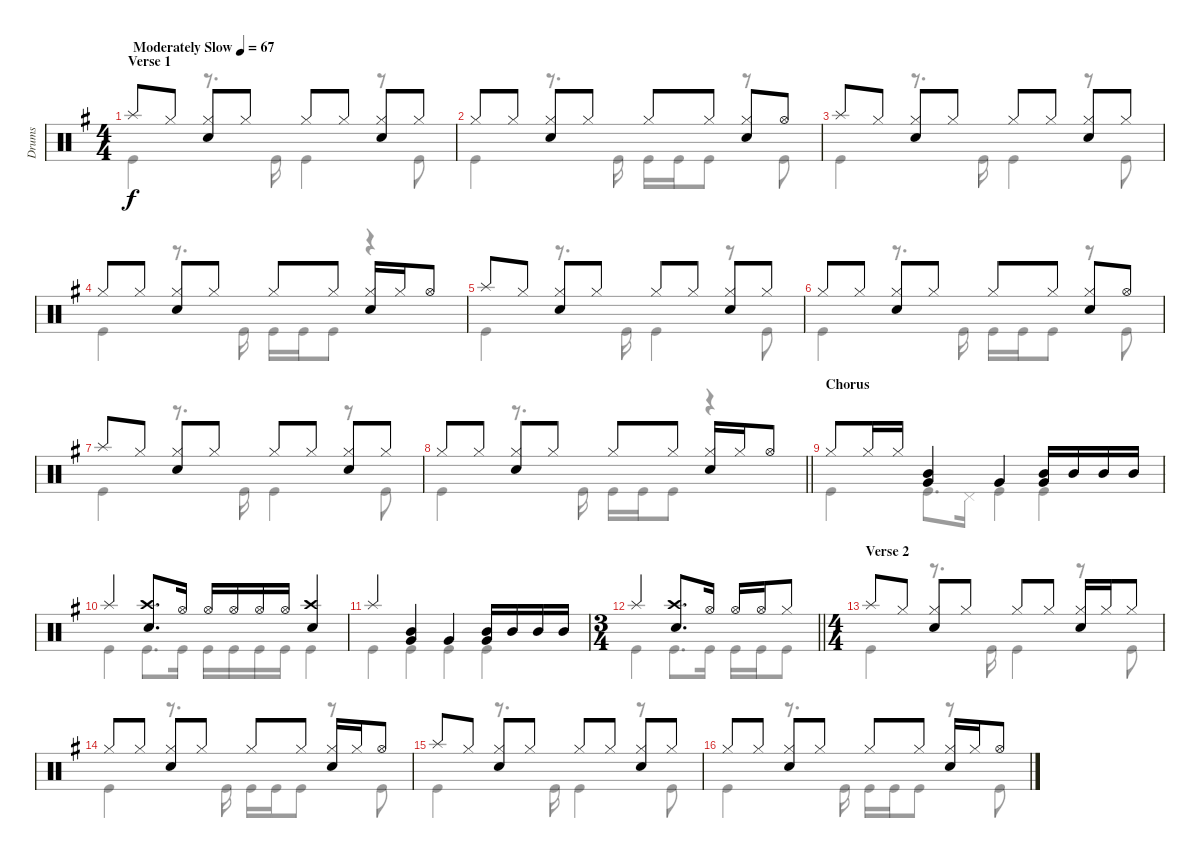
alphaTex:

\track ("Drums" "Drums") {instrument percussion}
\staff {score}
\articulation defaults
\voice
\ts (4 4)
\section ("" "Verse 1")
\tempo (67 "Moderately Slow")
\clef neutral
\ks eminor "Splash (hit)".8{dy f} "Hi-Hat (closed)".8
("Hi-Hat (closed)" "Snare (hit) 2").8 "Hi-Hat (closed)".8 "Hi-Hat (closed)".8 "Hi-Hat (closed)".8 ("Hi-Hat (closed)" "Snare (hit) 2").8 "Hi-Hat (closed)".8 |
"Hi-Hat (closed)".8 "Hi-Hat (closed)".8 ("Hi-Hat (closed)" "Snare (hit) 2").8 "Hi-Hat (closed)".8 "Hi-Hat (closed)".8 "Hi-Hat (closed)".8 ("Hi-Hat (closed)" "Snare (hit) 2").8 "Hi-Hat (open)".8 |
"Splash (hit)".8 "Hi-Hat (closed)".8 ("Hi-Hat (closed)" "Snare (hit) 2").8 "Hi-Hat (closed)".8 "Hi-Hat (closed)".8 "Hi-Hat (closed)".8 ("Hi-Hat (closed)" "Snare (hit) 2").8 "Hi-Hat (closed)".8 |
"Hi-Hat (closed)".8 "Hi-Hat (closed)".8 ("Hi-Hat (closed)" "Snare (hit) 2").8 "Hi-Hat (closed)".8 "Hi-Hat (closed)".8 "Hi-Hat (closed)".8 ("Hi-Hat (closed)" "Snare (hit) 2").16 "Hi-Hat (closed)".16 "Hi-Hat (open)".8 |
"Splash (hit)".8 "Hi-Hat (closed)".8 ("Hi-Hat (closed)" "Snare (hit) 2").8 "Hi-Hat (closed)".8 "Hi-Hat (closed)".8 "Hi-Hat (closed)".8 ("Hi-Hat (closed)" "Snare (hit) 2").8 "Hi-Hat (closed)".8 |
"Hi-Hat (closed)".8 "Hi-Hat (closed)".8 ("Hi-Hat (closed)" "Snare (hit) 2").8 "Hi-Hat (closed)".8 "Hi-Hat (closed)".8 "Hi-Hat (closed)".8 ("Hi-Hat (closed)" "Snare (hit) 2").8 "Hi-Hat (open)".8 |
"Splash (hit)".8 "Hi-Hat (closed)".8 ("Hi-Hat (closed)" "Snare (hit) 2").8 "Hi-Hat (closed)".8 "Hi-Hat (closed)".8 "Hi-Hat (closed)".8 ("Hi-Hat (closed)" "Snare (hit) 2").8 "Hi-Hat (closed)".8 |
\barLineRight lightlight "Hi-Hat (closed)".8 "Hi-Hat (closed)".8
("Hi-Hat (closed)" "Snare (hit) 2").8 "Hi-Hat (closed)".8 "Hi-Hat (closed)".8 "Hi-Hat (closed)".8 ("Hi-Hat (closed)" "Snare (hit) 2").16 "Hi-Hat (closed)".16 "Hi-Hat (open)".8 |
\section ("" "Chorus")
"Hi-Hat (closed)".8 "Hi-Hat (closed)".16 "Hi-Hat (closed)".16 ("Mid Tom (hit)" "Very Low Tom (hit)").4 "Very Low Tom (hit)".4 ("Very Low Tom (hit)" "Mid Tom (hit)").16 "Mid Tom (hit)".16 "Mid Tom (hit)".16 "Mid Tom (hit)".16 |
"Splash (hit)".4 ("Snare (hit) 2" "Crash high (hit)").8{d} "Hi-Hat (open)".16 "Hi-Hat (open)".16 "Hi-Hat (open)".16 "Hi-Hat (open)".16 "Hi-Hat (open)".16 ("Snare (hit) 2" "Crash high (hit)").4 |
"Splash (hit)".4 ("Mid Tom (hit)" "Very Low Tom (hit)").4 "Very Low Tom (hit)".4 ("Very Low Tom (hit)" "Mid Tom (hit)").16 "Mid Tom (hit)".16 "Mid Tom (hit)".16 "Mid Tom (hit)".16 |
\ts (3 4)
\barLineRight lightlight "Splash (hit)".4
("Crash high (hit)" "Snare (hit) 2").8{d} "Hi-Hat (open)".16 "Hi-Hat (open)".16 "Hi-Hat (open)".16 "Hi-Hat (closed)".8 |
\ts (4 4)
\section ("" "Verse 2")
"Splash (hit)".8 "Hi-Hat (closed)".8 ("Hi-Hat (closed)" "Snare (hit) 2").8 "Hi-Hat (closed)".8 "Hi-Hat (closed)".8 "Hi-Hat (closed)".8 ("Snare (hit) 2" "Hi-Hat (closed)").16 "Hi-Hat (closed)".16 "Hi-Hat (closed)".8 |
"Hi-Hat (closed)".8 "Hi-Hat (closed)".8 ("Hi-Hat (closed)" "Snare (hit) 2").8 "Hi-Hat (closed)".8 "Hi-Hat (closed)".8 "Hi-Hat (closed)".8 ("Hi-Hat (closed)" "Snare (hit) 2").16 "Hi-Hat (closed)".16 "Hi-Hat (open)".8 |
"Splash (hit)".8 "Hi-Hat (closed)".8 ("Hi-Hat (closed)" "Snare (hit) 2").8 "Hi-Hat (closed)".8 "Hi-Hat (closed)".8 "Hi-Hat (closed)".8 ("Hi-Hat (closed)" "Snare (hit) 2").8 "Hi-Hat (closed)".8 |
"Hi-Hat (closed)".8 "Hi-Hat (closed)".8 ("Hi-Hat (closed)" "Snare (hit) 2").8 "Hi-Hat (closed)".8 "Hi-Hat (closed)".8 "Hi-Hat (closed)".8 ("Hi-Hat (closed)" "Snare (hit) 2").16 "Hi-Hat (closed)".16 "Hi-Hat (open)".8
\voice
\clef neutral
\ottava regular
\simile none
\ks eminor "Kick (hit)".4{dy f}
r.8{d} "Kick (hit)".16 "Kick (hit)".4 r.8 "Kick (hit)".8 |
"Kick (hit)".4 r.8{d} "Kick (hit)".16 "Kick (hit)".16 "Kick (hit)".16 "Kick (hit)".8 r.8 "Kick (hit)".8 |
"Kick (hit)".4 r.8{d} "Kick (hit)".16 "Kick (hit)".4 r.8 "Kick (hit)".8 |
"Kick (hit)".4 r.8{d} "Kick (hit)".16 "Kick (hit)".16 "Kick (hit)".16 "Kick (hit)".8 r.4 |
"Kick (hit)".4 r.8{d} "Kick (hit)".16 "Kick (hit)".4 r.8 "Kick (hit)".8 |
"Kick (hit)".4 r.8{d} "Kick (hit)".16 "Kick (hit)".16 "Kick (hit)".16 "Kick (hit)".8 r.8 "Kick (hit)".8 |
"Kick (hit)".4 r.8{d} "Kick (hit)".16 "Kick (hit)".4 r.8 "Kick (hit)".8 |
\barLineRight lightlight "Kick (hit)".4
r.8{d} "Kick (hit)".16 "Kick (hit)".16 "Kick (hit)".16 "Kick (hit)".8 r.4 |
"Kick (hit)".4 "Kick (hit)".8{d} "Pedal Hi-Hat (hit)".16 "Kick (hit)".4 "Kick (hit)".4 |
"Kick (hit)".4 "Kick (hit)".8{d} "Kick (hit)".16 "Kick (hit)".16 "Kick (hit)".16 "Kick (hit)".16 "Kick (hit)".16 "Kick (hit)".4 |
"Kick (hit)".4 "Kick (hit)".4 "Kick (hit)".4 "Kick (hit)".4 |
\barLineRight lightlight "Kick (hit)".4 "Kick (hit)".8{d} "Kick (hit)".16 "Kick (hit)".16 "Kick (hit)".16 "Kick (hit)".8
|
"Kick (hit)".4 r.8{d} "Kick (hit)".16 "Kick (hit)".4 r.8 "Kick (hit)".8 |
"Kick (hit)".4 r.8{d} "Kick (hit)".16 "Kick (hit)".16 "Kick (hit)".16 "Kick (hit)".8 r.8 "Kick (hit)".8 |
"Kick (hit)".4 r.8{d} "Kick (hit)".16 "Kick (hit)".4 r.8 "Kick (hit)".8 |
"Kick (hit)".4 r.8{d} "Kick (hit)".16 "Kick (hit)".16 "Kick (hit)".16 "Kick (hit)".8 r.8 "Kick (hit)".8
